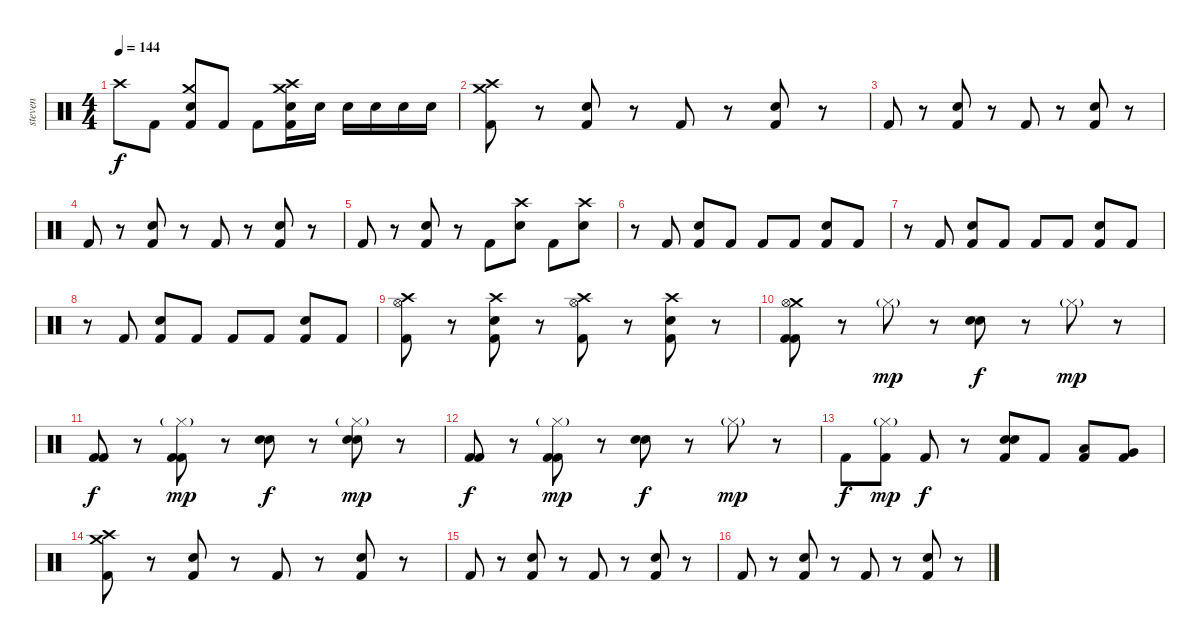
\track ("steven" "steven") {instrument percussion}
\staff {score}
\articulation defaults
\ts (4 4)
\tempo 144
\clef neutral
\ks c "Crash high (hit)".8{dy f} "Kick (hit) 2".8
("Crash medium (hit)" "Electric Snare (hit)" "Kick (hit) 2").8 "Kick (hit) 2".8 "Kick (hit) 2".8 ("Crash high (hit)" "Crash medium (hit)" "Electric Snare (hit)" "Kick (hit) 2").16 "Electric Snare (hit)".16 "Electric Snare (hit)".16 "Electric Snare (hit)".16 "Electric Snare (hit)".16 "Electric Snare (hit)".16 |
("Crash medium (hit)" "Crash high (hit)" "Kick (hit) 2").8 r.8 ("Electric Snare (hit)" "Kick (hit) 2").8 r.8 "Kick (hit) 2".8 r.8 ("Electric Snare (hit)" "Kick (hit) 2").8 r.8 |
"Kick (hit) 2".8 r.8 ("Electric Snare (hit)" "Kick (hit) 2").8 r.8 "Kick (hit) 2".8 r.8 ("Electric Snare (hit)" "Kick (hit) 2").8 r.8 |
"Kick (hit) 2".8 r.8 ("Electric Snare (hit)" "Kick (hit) 2").8 r.8 "Kick (hit) 2".8 r.8 ("Electric Snare (hit)" "Kick (hit) 2").8 r.8 |
"Kick (hit) 2".8 r.8 ("Electric Snare (hit)" "Kick (hit) 2").8 r.8 "Kick (hit) 2".8 ("Crash high (hit)" "Electric Snare (hit)").8 "Kick (hit) 2".8 ("Crash high (hit)" "Electric Snare (hit)").8 |
r.8 "Kick (hit) 2".8 ("Electric Snare (hit)" "Kick (hit) 2").8 "Kick (hit) 2".8 "Kick (hit) 2".8 "Kick (hit) 2".8 ("Electric Snare (hit)" "Kick (hit) 2").8 "Kick (hit) 2".8 |
r.8 "Kick (hit) 2".8 ("Electric Snare (hit)" "Kick (hit) 2").8 "Kick (hit) 2".8 "Kick (hit) 2".8 "Kick (hit) 2".8 ("Electric Snare (hit)" "Kick (hit) 2").8 "Kick (hit) 2".8 |
r.8 "Kick (hit) 2".8 ("Electric Snare (hit)" "Kick (hit) 2").8 "Kick (hit) 2".8 "Kick (hit) 2".8 "Kick (hit) 2".8 ("Electric Snare (hit)" "Kick (hit) 2").8 "Kick (hit) 2".8 |
("Crash high (hit)" "Hi-Hat (open)" "Kick (hit) 2").8 r.8 ("Crash high (hit)" "Electric Snare (hit)" "Kick (hit) 2").8 r.8 ("Crash high (hit)" "Hi-Hat (open)" "Kick (hit) 2").8 r.8 ("Crash high (hit)" "Electric Snare (hit)" "Kick (hit) 2").8 r.8 |
("Crash medium (hit)" "Hi-Hat (open)" "Kick (hit) 2" "Kick (hit) 2").8 r.8 "Hi-Hat (closed)"{g}.8{dy mp} r.8 ("Electric Snare (hit)" "Electric Snare (hit)").8{dy f} r.8 "Hi-Hat (closed)"{g}.8{dy mp} r.8 |
("Kick (hit) 2" "Kick (hit) 2").8{dy f} r.8 ("Hi-Hat (closed)"{g} "Kick (hit) 2" "Kick (hit) 2").8{dy mp} r.8 ("Electric Snare (hit)" "Electric Snare (hit)").8{dy f} r.8 ("Hi-Hat (closed)"{g} "Electric Snare (hit)" "Electric Snare (hit)").8{dy mp} r.8 |
("Kick (hit) 2" "Kick (hit) 2").8{dy f} r.8 ("Hi-Hat (closed)"{g} "Kick (hit) 2" "Kick (hit) 2").8{dy mp} r.8 ("Electric Snare (hit)" "Electric Snare (hit)").8{dy f} r.8 "Hi-Hat (closed)"{g}.8{dy mp} r.8 |
"Kick (hit) 2".8{dy f} ("Hi-Hat (closed)"{g} "Kick (hit) 2").8{dy mp} "Kick (hit) 2".8{dy f} r.8 ("Electric Snare (hit)" "Electric Snare (hit)" "Kick (hit) 2").8 "Kick (hit) 2".8 ("Low Tom (hit)" "Kick (hit) 2").8 ("Very Low Tom (hit)" "Kick (hit) 2").8 |
("Crash high (hit)" "Crash medium (hit)" "Kick (hit) 2").8 r.8 ("Electric Snare (hit)" "Kick (hit) 2").8 r.8 "Kick (hit) 2".8 r.8 ("Electric Snare (hit)" "Kick (hit) 2").8 r.8 |
"Kick (hit) 2".8 r.8 ("Electric Snare (hit)" "Kick (hit) 2").8 r.8 "Kick (hit) 2".8 r.8 ("Electric Snare (hit)" "Kick (hit) 2").8 r.8 |
"Kick (hit) 2".8 r.8 ("Electric Snare (hit)" "Kick (hit) 2").8 r.8 "Kick (hit) 2".8 r.8 ("Electric Snare (hit)" "Kick (hit) 2").8 r.8
